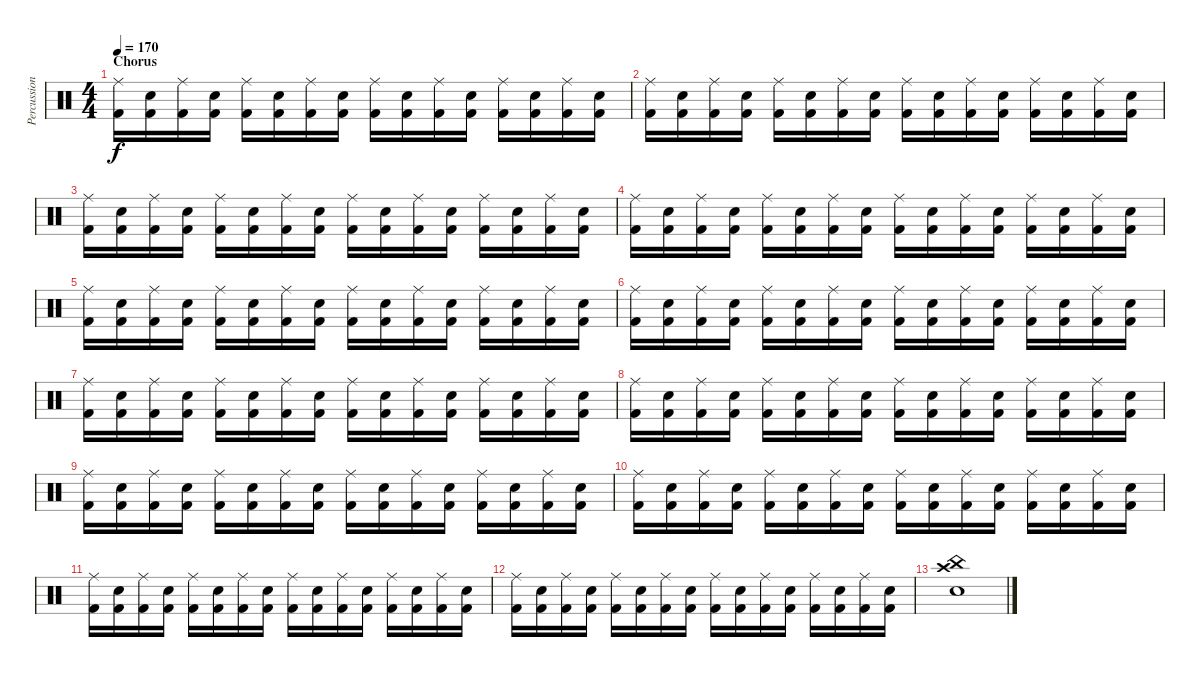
\track ("Percussion" "Percussion") {instrument percussion}
\staff {score}
\articulation defaults
\ts (4 4)
\section ("" "Chorus")
\tempo 170
\clef neutral
\ks c
("Ride (middle)" "Kick (hit) 2").16{dy f} ("Electric Snare (hit)" "Kick (hit) 2").16 ("Ride (middle)" "Kick (hit) 2").16 ("Electric Snare (hit)" "Kick (hit) 2").16 ("Ride (middle)" "Kick (hit) 2").16 ("Electric Snare (hit)" "Kick (hit) 2").16 ("Ride (middle)" "Kick (hit) 2").16 ("Electric Snare (hit)" "Kick (hit) 2").16 ("Ride (middle)" "Kick (hit) 2").16 ("Electric Snare (hit)" "Kick (hit) 2").16 ("Ride (middle)" "Kick (hit) 2").16 ("Electric Snare (hit)" "Kick (hit) 2").16 ("Ride (middle)" "Kick (hit) 2").16 ("Electric Snare (hit)" "Kick (hit) 2").16 ("Ride (middle)" "Kick (hit) 2").16 ("Electric Snare (hit)" "Kick (hit) 2").16 |
("Ride (middle)" "Kick (hit) 2").16 ("Electric Snare (hit)" "Kick (hit) 2").16 ("Ride (middle)" "Kick (hit) 2").16 ("Electric Snare (hit)" "Kick (hit) 2").16 ("Ride (middle)" "Kick (hit) 2").16 ("Electric Snare (hit)" "Kick (hit) 2").16 ("Ride (middle)" "Kick (hit) 2").16 ("Electric Snare (hit)" "Kick (hit) 2").16 ("Ride (middle)" "Kick (hit) 2").16 ("Electric Snare (hit)" "Kick (hit) 2").16 ("Ride (middle)" "Kick (hit) 2").16 ("Electric Snare (hit)" "Kick (hit) 2").16 ("Ride (middle)" "Kick (hit) 2").16 ("Electric Snare (hit)" "Kick (hit) 2").16 ("Ride (middle)" "Kick (hit) 2").16 ("Electric Snare (hit)" "Kick (hit) 2").16 |
("Ride (middle)" "Kick (hit) 2").16 ("Electric Snare (hit)" "Kick (hit) 2").16 ("Ride (middle)" "Kick (hit) 2").16 ("Electric Snare (hit)" "Kick (hit) 2").16 ("Ride (middle)" "Kick (hit) 2").16 ("Electric Snare (hit)" "Kick (hit) 2").16 ("Ride (middle)" "Kick (hit) 2").16 ("Electric Snare (hit)" "Kick (hit) 2").16 ("Ride (middle)" "Kick (hit) 2").16 ("Electric Snare (hit)" "Kick (hit) 2").16 ("Ride (middle)" "Kick (hit) 2").16 ("Electric Snare (hit)" "Kick (hit) 2").16 ("Ride (middle)" "Kick (hit) 2").16 ("Electric Snare (hit)" "Kick (hit) 2").16 ("Ride (middle)" "Kick (hit) 2").16 ("Electric Snare (hit)" "Kick (hit) 2").16 |
("Ride (middle)" "Kick (hit) 2").16 ("Electric Snare (hit)" "Kick (hit) 2").16 ("Ride (middle)" "Kick (hit) 2").16 ("Electric Snare (hit)" "Kick (hit) 2").16 ("Ride (middle)" "Kick (hit) 2").16 ("Electric Snare (hit)" "Kick (hit) 2").16 ("Ride (middle)" "Kick (hit) 2").16 ("Electric Snare (hit)" "Kick (hit) 2").16 ("Ride (middle)" "Kick (hit) 2").16 ("Electric Snare (hit)" "Kick (hit) 2").16 ("Ride (middle)" "Kick (hit) 2").16 ("Electric Snare (hit)" "Kick (hit) 2").16 ("Ride (middle)" "Kick (hit) 2").16 ("Electric Snare (hit)" "Kick (hit) 2").16 ("Ride (middle)" "Kick (hit) 2").16 ("Electric Snare (hit)" "Kick (hit) 2").16 |
("Ride (middle)" "Kick (hit) 2").16 ("Electric Snare (hit)" "Kick (hit) 2").16 ("Ride (middle)" "Kick (hit) 2").16 ("Electric Snare (hit)" "Kick (hit) 2").16 ("Ride (middle)" "Kick (hit) 2").16 ("Electric Snare (hit)" "Kick (hit) 2").16 ("Ride (middle)" "Kick (hit) 2").16 ("Electric Snare (hit)" "Kick (hit) 2").16 ("Ride (middle)" "Kick (hit) 2").16 ("Electric Snare (hit)" "Kick (hit) 2").16 ("Ride (middle)" "Kick (hit) 2").16 ("Electric Snare (hit)" "Kick (hit) 2").16 ("Ride (middle)" "Kick (hit) 2").16 ("Electric Snare (hit)" "Kick (hit) 2").16 ("Ride (middle)" "Kick (hit) 2").16 ("Electric Snare (hit)" "Kick (hit) 2").16 |
("Ride (middle)" "Kick (hit) 2").16 ("Electric Snare (hit)" "Kick (hit) 2").16 ("Ride (middle)" "Kick (hit) 2").16 ("Electric Snare (hit)" "Kick (hit) 2").16 ("Ride (middle)" "Kick (hit) 2").16 ("Electric Snare (hit)" "Kick (hit) 2").16 ("Ride (middle)" "Kick (hit) 2").16 ("Electric Snare (hit)" "Kick (hit) 2").16 ("Ride (middle)" "Kick (hit) 2").16 ("Electric Snare (hit)" "Kick (hit) 2").16 ("Ride (middle)" "Kick (hit) 2").16 ("Electric Snare (hit)" "Kick (hit) 2").16 ("Ride (middle)" "Kick (hit) 2").16 ("Electric Snare (hit)" "Kick (hit) 2").16 ("Ride (middle)" "Kick (hit) 2").16 ("Electric Snare (hit)" "Kick (hit) 2").16 |
("Ride (middle)" "Kick (hit) 2").16 ("Electric Snare (hit)" "Kick (hit) 2").16 ("Ride (middle)" "Kick (hit) 2").16 ("Electric Snare (hit)" "Kick (hit) 2").16 ("Ride (middle)" "Kick (hit) 2").16 ("Electric Snare (hit)" "Kick (hit) 2").16 ("Ride (middle)" "Kick (hit) 2").16 ("Electric Snare (hit)" "Kick (hit) 2").16 ("Ride (middle)" "Kick (hit) 2").16 ("Electric Snare (hit)" "Kick (hit) 2").16 ("Ride (middle)" "Kick (hit) 2").16 ("Electric Snare (hit)" "Kick (hit) 2").16 ("Ride (middle)" "Kick (hit) 2").16 ("Electric Snare (hit)" "Kick (hit) 2").16 ("Ride (middle)" "Kick (hit) 2").16 ("Electric Snare (hit)" "Kick (hit) 2").16 |
("Ride (middle)" "Kick (hit) 2").16 ("Electric Snare (hit)" "Kick (hit) 2").16 ("Ride (middle)" "Kick (hit) 2").16 ("Electric Snare (hit)" "Kick (hit) 2").16 ("Ride (middle)" "Kick (hit) 2").16 ("Electric Snare (hit)" "Kick (hit) 2").16 ("Ride (middle)" "Kick (hit) 2").16 ("Electric Snare (hit)" "Kick (hit) 2").16 ("Ride (middle)" "Kick (hit) 2").16 ("Electric Snare (hit)" "Kick (hit) 2").16 ("Ride (middle)" "Kick (hit) 2").16 ("Electric Snare (hit)" "Kick (hit) 2").16 ("Ride (middle)" "Kick (hit) 2").16 ("Electric Snare (hit)" "Kick (hit) 2").16 ("Ride (middle)" "Kick (hit) 2").16 ("Electric Snare (hit)" "Kick (hit) 2").16 |
("Ride (middle)" "Kick (hit) 2").16 ("Electric Snare (hit)" "Kick (hit) 2").16 ("Ride (middle)" "Kick (hit) 2").16 ("Electric Snare (hit)" "Kick (hit) 2").16 ("Ride (middle)" "Kick (hit) 2").16 ("Electric Snare (hit)" "Kick (hit) 2").16 ("Ride (middle)" "Kick (hit) 2").16 ("Electric Snare (hit)" "Kick (hit) 2").16 ("Ride (middle)" "Kick (hit) 2").16 ("Electric Snare (hit)" "Kick (hit) 2").16 ("Ride (middle)" "Kick (hit) 2").16 ("Electric Snare (hit)" "Kick (hit) 2").16 ("Ride (middle)" "Kick (hit) 2").16 ("Electric Snare (hit)" "Kick (hit) 2").16 ("Ride (middle)" "Kick (hit) 2").16 ("Electric Snare (hit)" "Kick (hit) 2").16 |
("Ride (middle)" "Kick (hit) 2").16 ("Electric Snare (hit)" "Kick (hit) 2").16 ("Ride (middle)" "Kick (hit) 2").16 ("Electric Snare (hit)" "Kick (hit) 2").16 ("Ride (middle)" "Kick (hit) 2").16 ("Electric Snare (hit)" "Kick (hit) 2").16 ("Ride (middle)" "Kick (hit) 2").16 ("Electric Snare (hit)" "Kick (hit) 2").16 ("Ride (middle)" "Kick (hit) 2").16 ("Electric Snare (hit)" "Kick (hit) 2").16 ("Ride (middle)" "Kick (hit) 2").16 ("Electric Snare (hit)" "Kick (hit) 2").16 ("Ride (middle)" "Kick (hit) 2").16 ("Electric Snare (hit)" "Kick (hit) 2").16 ("Ride (middle)" "Kick (hit) 2").16 ("Electric Snare (hit)" "Kick (hit) 2").16 |
("Ride (middle)" "Kick (hit) 2").16 ("Electric Snare (hit)" "Kick (hit) 2").16 ("Ride (middle)" "Kick (hit) 2").16 ("Electric Snare (hit)" "Kick (hit) 2").16 ("Ride (middle)" "Kick (hit) 2").16 ("Electric Snare (hit)" "Kick (hit) 2").16 ("Ride (middle)" "Kick (hit) 2").16 ("Electric Snare (hit)" "Kick (hit) 2").16 ("Ride (middle)" "Kick (hit) 2").16 ("Electric Snare (hit)" "Kick (hit) 2").16 ("Ride (middle)" "Kick (hit) 2").16 ("Electric Snare (hit)" "Kick (hit) 2").16 ("Ride (middle)" "Kick (hit) 2").16 ("Electric Snare (hit)" "Kick (hit) 2").16 ("Ride (middle)" "Kick (hit) 2").16 ("Electric Snare (hit)" "Kick (hit) 2").16 |
("Ride (middle)" "Kick (hit) 2").16 ("Electric Snare (hit)" "Kick (hit) 2").16 ("Ride (middle)" "Kick (hit) 2").16 ("Electric Snare (hit)" "Kick (hit) 2").16 ("Ride (middle)" "Kick (hit) 2").16 ("Electric Snare (hit)" "Kick (hit) 2").16 ("Ride (middle)" "Kick (hit) 2").16 ("Electric Snare (hit)" "Kick (hit) 2").16 ("Ride (middle)" "Kick (hit) 2").16 ("Electric Snare (hit)" "Kick (hit) 2").16 ("Ride (middle)" "Kick (hit) 2").16 ("Electric Snare (hit)" "Kick (hit) 2").16 ("Ride (middle)" "Kick (hit) 2").16 ("Electric Snare (hit)" "Kick (hit) 2").16 ("Ride (middle)" "Kick (hit) 2").16 ("Electric Snare (hit)" "Kick (hit) 2").16 |
("Snare (hit) 2" "Crash high (hit)" "China (hit)").1
